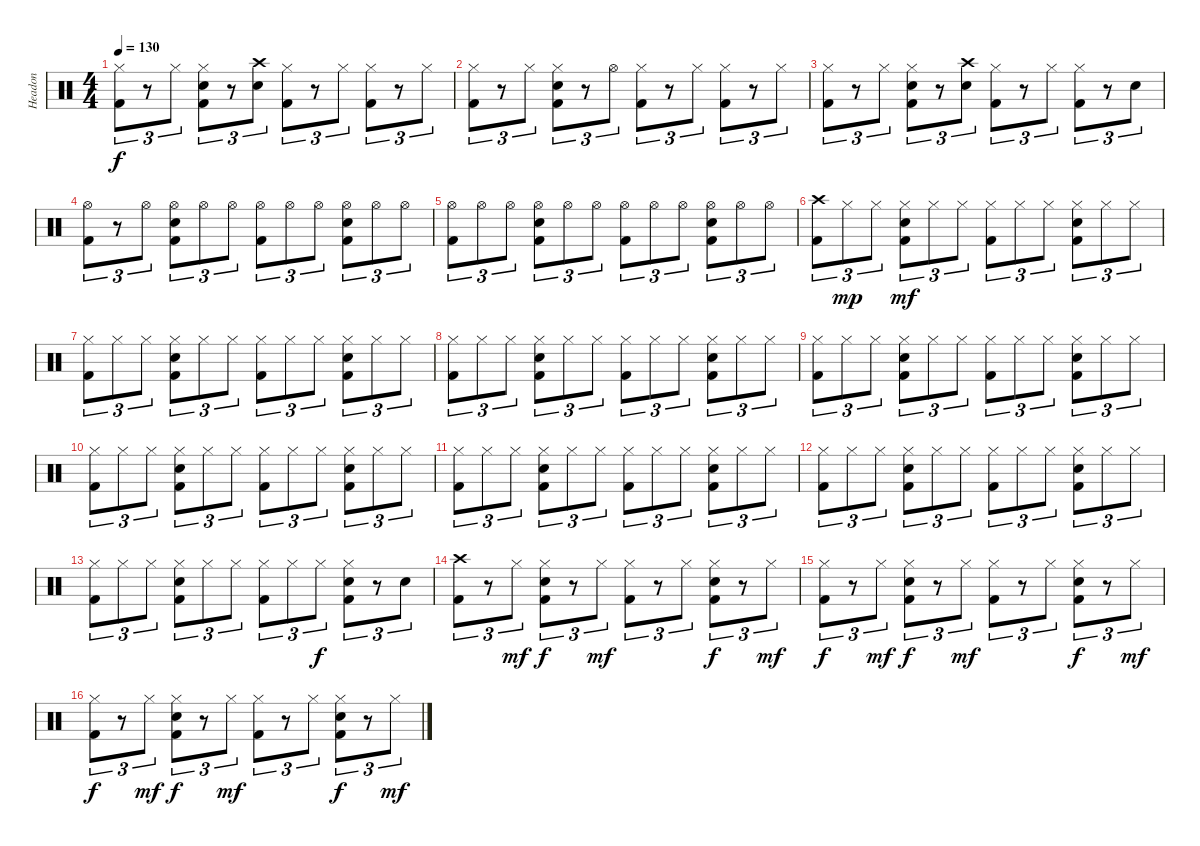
\track ("Headon" "Headon") {instrument percussion}
\staff {score}
\articulation defaults
\ts (4 4)
\tempo 130
\clef neutral
\ks c
("Hi-Hat (closed)" "Kick (hit) 2").8{tu (3 2) dy f} r.8{tu (3 2)} "Hi-Hat (closed)".8{tu (3 2)} ("Hi-Hat (closed)" "Snare (hit) 2" "Kick (hit) 2").8{tu (3 2)} r.8{tu (3 2)} ("Crash high (hit)" "Snare (hit) 2").8{tu (3 2)} ("Hi-Hat (closed)" "Kick (hit) 2").8{tu (3 2)} r.8{tu (3 2)} "Hi-Hat (closed)".8{tu (3 2)} ("Hi-Hat (closed)" "Kick (hit) 2").8{tu (3 2)} r.8{tu (3 2)} "Hi-Hat (closed)".8{tu (3 2)} |
("Hi-Hat (closed)" "Kick (hit) 2").8{tu (3 2)} r.8{tu (3 2)} "Hi-Hat (closed)".8{tu (3 2)} ("Hi-Hat (closed)" "Snare (hit) 2" "Kick (hit) 2").8{tu (3 2)} r.8{tu (3 2)} "Hi-Hat (open)".8{tu (3 2)} ("Hi-Hat (closed)" "Kick (hit) 2").8{tu (3 2)} r.8{tu (3 2)} "Hi-Hat (closed)".8{tu (3 2)} ("Hi-Hat (closed)" "Kick (hit) 2").8{tu (3 2)} r.8{tu (3 2)} "Hi-Hat (closed)".8{tu (3 2)} |
("Hi-Hat (closed)" "Kick (hit) 2").8{tu (3 2)} r.8{tu (3 2)} "Hi-Hat (closed)".8{tu (3 2)} ("Hi-Hat (closed)" "Snare (hit) 2" "Kick (hit) 2").8{tu (3 2)} r.8{tu (3 2)} ("Crash high (hit)" "Snare (hit) 2").8{tu (3 2)} ("Hi-Hat (closed)" "Kick (hit) 2").8{tu (3 2)} r.8{tu (3 2)} "Hi-Hat (closed)".8{tu (3 2)} ("Hi-Hat (closed)" "Kick (hit) 2").8{tu (3 2)} r.8{tu (3 2)} "Snare (hit) 2".8{tu (3 2)} |
("Hi-Hat (open)" "Kick (hit) 2").8{tu (3 2)} r.8{tu (3 2)} "Hi-Hat (open)".8{tu (3 2)} ("Hi-Hat (open)" "Snare (hit) 2" "Kick (hit) 2").8{tu (3 2)} "Hi-Hat (open)".8{tu (3 2)} "Hi-Hat (open)".8{tu (3 2)} ("Hi-Hat (open)" "Kick (hit) 2").8{tu (3 2)} "Hi-Hat (open)".8{tu (3 2)} "Hi-Hat (open)".8{tu (3 2)} ("Hi-Hat (open)" "Snare (hit) 2" "Kick (hit) 2").8{tu (3 2)} "Hi-Hat (open)".8{tu (3 2)} "Hi-Hat (open)".8{tu (3 2)} |
("Hi-Hat (open)" "Kick (hit) 2").8{tu (3 2)} "Hi-Hat (open)".8{tu (3 2)} "Hi-Hat (open)".8{tu (3 2)} ("Hi-Hat (open)" "Snare (hit) 2" "Kick (hit) 2").8{tu (3 2)} "Hi-Hat (open)".8{tu (3 2)} "Hi-Hat (open)".8{tu (3 2)} ("Hi-Hat (open)" "Kick (hit) 2").8{tu (3 2)} "Hi-Hat (open)".8{tu (3 2)} "Hi-Hat (open)".8{tu (3 2)} ("Hi-Hat (open)" "Snare (hit) 2" "Kick (hit) 2").8{tu (3 2)} "Hi-Hat (open)".8{tu (3 2)} "Hi-Hat (open)".8{tu (3 2)} |
("Crash high (hit)" "Kick (hit) 2").8{tu (3 2)} "Hi-Hat (closed)".8{tu (3 2) dy mp} "Hi-Hat (closed)".8{tu (3 2)} ("Hi-Hat (closed)" "Snare (hit) 2" "Kick (hit) 2").8{tu (3 2) dy mf} "Hi-Hat (closed)".8{tu (3 2)} "Hi-Hat (closed)".8{tu (3 2)} ("Hi-Hat (closed)" "Kick (hit) 2").8{tu (3 2)} "Hi-Hat (closed)".8{tu (3 2)} "Hi-Hat (closed)".8{tu (3 2)} ("Hi-Hat (closed)" "Snare (hit) 2" "Kick (hit) 2").8{tu (3 2)} "Hi-Hat (closed)".8{tu (3 2)} "Hi-Hat (closed)".8{tu (3 2)} |
("Hi-Hat (closed)" "Kick (hit) 2").8{tu (3 2)} "Hi-Hat (closed)".8{tu (3 2)} "Hi-Hat (closed)".8{tu (3 2)} ("Hi-Hat (closed)" "Snare (hit) 2" "Kick (hit) 2").8{tu (3 2)} "Hi-Hat (closed)".8{tu (3 2)} "Hi-Hat (closed)".8{tu (3 2)} ("Hi-Hat (closed)" "Kick (hit) 2").8{tu (3 2)} "Hi-Hat (closed)".8{tu (3 2)} "Hi-Hat (closed)".8{tu (3 2)} ("Hi-Hat (closed)" "Snare (hit) 2" "Kick (hit) 2").8{tu (3 2)} "Hi-Hat (closed)".8{tu (3 2)} "Hi-Hat (closed)".8{tu (3 2)} |
("Hi-Hat (closed)" "Kick (hit) 2").8{tu (3 2)} "Hi-Hat (closed)".8{tu (3 2)} "Hi-Hat (closed)".8{tu (3 2)} ("Hi-Hat (closed)" "Snare (hit) 2" "Kick (hit) 2").8{tu (3 2)} "Hi-Hat (closed)".8{tu (3 2)} "Hi-Hat (closed)".8{tu (3 2)} ("Hi-Hat (closed)" "Kick (hit) 2").8{tu (3 2)} "Hi-Hat (closed)".8{tu (3 2)} "Hi-Hat (closed)".8{tu (3 2)} ("Hi-Hat (closed)" "Snare (hit) 2" "Kick (hit) 2").8{tu (3 2)} "Hi-Hat (closed)".8{tu (3 2)} "Hi-Hat (closed)".8{tu (3 2)} |
("Hi-Hat (closed)" "Kick (hit) 2").8{tu (3 2)} "Hi-Hat (closed)".8{tu (3 2)} "Hi-Hat (closed)".8{tu (3 2)} ("Hi-Hat (closed)" "Snare (hit) 2" "Kick (hit) 2").8{tu (3 2)} "Hi-Hat (closed)".8{tu (3 2)} "Hi-Hat (closed)".8{tu (3 2)} ("Hi-Hat (closed)" "Kick (hit) 2").8{tu (3 2)} "Hi-Hat (closed)".8{tu (3 2)} "Hi-Hat (closed)".8{tu (3 2)} ("Hi-Hat (closed)" "Snare (hit) 2" "Kick (hit) 2").8{tu (3 2)} "Hi-Hat (closed)".8{tu (3 2)} "Hi-Hat (closed)".8{tu (3 2)} |
("Hi-Hat (closed)" "Kick (hit) 2").8{tu (3 2)} "Hi-Hat (closed)".8{tu (3 2)} "Hi-Hat (closed)".8{tu (3 2)} ("Hi-Hat (closed)" "Snare (hit) 2" "Kick (hit) 2").8{tu (3 2)} "Hi-Hat (closed)".8{tu (3 2)} "Hi-Hat (closed)".8{tu (3 2)} ("Hi-Hat (closed)" "Kick (hit) 2").8{tu (3 2)} "Hi-Hat (closed)".8{tu (3 2)} "Hi-Hat (closed)".8{tu (3 2)} ("Hi-Hat (closed)" "Snare (hit) 2" "Kick (hit) 2").8{tu (3 2)} "Hi-Hat (closed)".8{tu (3 2)} "Hi-Hat (closed)".8{tu (3 2)} |
("Hi-Hat (closed)" "Kick (hit) 2").8{tu (3 2)} "Hi-Hat (closed)".8{tu (3 2)} "Hi-Hat (closed)".8{tu (3 2)} ("Hi-Hat (closed)" "Snare (hit) 2" "Kick (hit) 2").8{tu (3 2)} "Hi-Hat (closed)".8{tu (3 2)} "Hi-Hat (closed)".8{tu (3 2)} ("Hi-Hat (closed)" "Kick (hit) 2").8{tu (3 2)} "Hi-Hat (closed)".8{tu (3 2)} "Hi-Hat (closed)".8{tu (3 2)} ("Hi-Hat (closed)" "Snare (hit) 2" "Kick (hit) 2").8{tu (3 2)} "Hi-Hat (closed)".8{tu (3 2)} "Hi-Hat (closed)".8{tu (3 2)} |
("Hi-Hat (closed)" "Kick (hit) 2").8{tu (3 2)} "Hi-Hat (closed)".8{tu (3 2)} "Hi-Hat (closed)".8{tu (3 2)} ("Hi-Hat (closed)" "Snare (hit) 2" "Kick (hit) 2").8{tu (3 2)} "Hi-Hat (closed)".8{tu (3 2)} "Hi-Hat (closed)".8{tu (3 2)} ("Hi-Hat (closed)" "Kick (hit) 2").8{tu (3 2)} "Hi-Hat (closed)".8{tu (3 2)} "Hi-Hat (closed)".8{tu (3 2)} ("Hi-Hat (closed)" "Snare (hit) 2" "Kick (hit) 2").8{tu (3 2)} "Hi-Hat (closed)".8{tu (3 2)} "Hi-Hat (closed)".8{tu (3 2)} |
("Hi-Hat (closed)" "Kick (hit) 2").8{tu (3 2)} "Hi-Hat (closed)".8{tu (3 2)} "Hi-Hat (closed)".8{tu (3 2)} ("Hi-Hat (closed)" "Snare (hit) 2" "Kick (hit) 2").8{tu (3 2)} "Hi-Hat (closed)".8{tu (3 2)} "Hi-Hat (closed)".8{tu (3 2)} ("Hi-Hat (closed)" "Kick (hit) 2").8{tu (3 2)} "Hi-Hat (closed)".8{tu (3 2)} "Hi-Hat (closed)".8{tu (3 2) dy f} ("Hi-Hat (closed)" "Snare (hit) 2" "Kick (hit) 2").8{tu (3 2)} r.8{tu (3 2)} "Snare (hit) 2".8{tu (3 2)} |
("Crash high (hit)" "Kick (hit) 2").8{tu (3 2)} r.8{tu (3 2)} "Hi-Hat (closed)".8{tu (3 2) dy mf} ("Hi-Hat (closed)" "Snare (hit) 2" "Kick (hit) 2").8{tu (3 2) dy f} r.8{tu (3 2)} "Hi-Hat (closed)".8{tu (3 2) dy mf} ("Hi-Hat (closed)" "Kick (hit) 2").8{tu (3 2)} r.8{tu (3 2)} "Hi-Hat (closed)".8{tu (3 2)} ("Hi-Hat (closed)" "Snare (hit) 2" "Kick (hit) 2").8{tu (3 2) dy f} r.8{tu (3 2)} "Hi-Hat (closed)".8{tu (3 2) dy mf} |
("Hi-Hat (closed)" "Kick (hit) 2").8{tu (3 2) dy f} r.8{tu (3 2)} "Hi-Hat (closed)".8{tu (3 2) dy mf} ("Hi-Hat (closed)" "Snare (hit) 2" "Kick (hit) 2").8{tu (3 2) dy f} r.8{tu (3 2)} "Hi-Hat (closed)".8{tu (3 2) dy mf} ("Hi-Hat (closed)" "Kick (hit) 2").8{tu (3 2)} r.8{tu (3 2)} "Hi-Hat (closed)".8{tu (3 2)} ("Hi-Hat (closed)" "Snare (hit) 2" "Kick (hit) 2").8{tu (3 2) dy f} r.8{tu (3 2)} "Hi-Hat (closed)".8{tu (3 2) dy mf} |
("Hi-Hat (closed)" "Kick (hit) 2").8{tu (3 2) dy f} r.8{tu (3 2)} "Hi-Hat (closed)".8{tu (3 2) dy mf} ("Hi-Hat (closed)" "Snare (hit) 2" "Kick (hit) 2").8{tu (3 2) dy f} r.8{tu (3 2)} "Hi-Hat (closed)".8{tu (3 2) dy mf} ("Hi-Hat (closed)" "Kick (hit) 2").8{tu (3 2)} r.8{tu (3 2)} "Hi-Hat (closed)".8{tu (3 2)} ("Hi-Hat (closed)" "Snare (hit) 2" "Kick (hit) 2").8{tu (3 2) dy f} r.8{tu (3 2)} "Hi-Hat (closed)".8{tu (3 2) dy mf}
